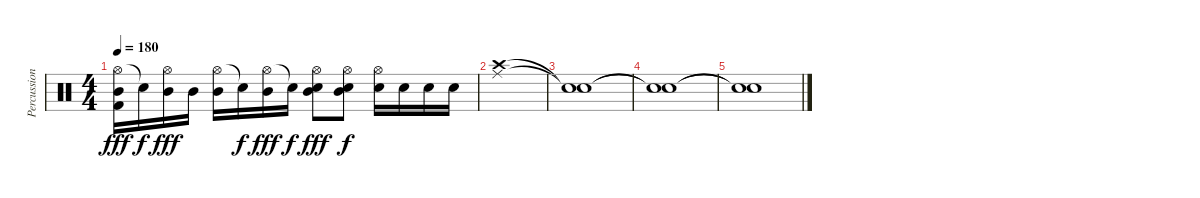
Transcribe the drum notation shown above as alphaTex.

\track ("Percussion" "Percussion") {instrument percussion}
\staff {score}
\articulation defaults
\ts (4 4)
\tempo 180
\clef neutral
\ks c
("Hi-Hat (open)" "Mid Tom (hit)" "Kick (hit) 2").16{dy fff} "Electric Snare (hit)"{t}.16{dy f} ("Hi-Hat (open)" "Mid Tom (hit)").16{dy fff} "Mid Tom (hit)".16 ("Hi-Hat (open)" "Mid Tom (hit)").16 "Snare (hit)"{t}.16{dy f} ("Hi-Hat (open)" "Mid Tom (hit)").16{dy fff} "Snare (hit)"{t}.16{dy f} ("Hi-Hat (open)" "Electric Snare (hit)" "Mid Tom (hit)").8{dy fff} ("Hi-Hat (open)" "Electric Snare (hit)" "Mid Tom (hit)").8{dy f} ("Hi-Hat (open)" "Electric Snare (hit)").16 "Electric Snare (hit)".16 "Electric Snare (hit)".16 "Electric Snare (hit)".16 |
("Crash high (hit)" "Ride (middle)").1 |
("Snare (hit)"{t} "Snare (hit)"{t}).1 |
("Snare (hit)"{t} "Snare (hit)"{t}).1 |
("Snare (hit)"{t} "Snare (hit)"{t}).1
